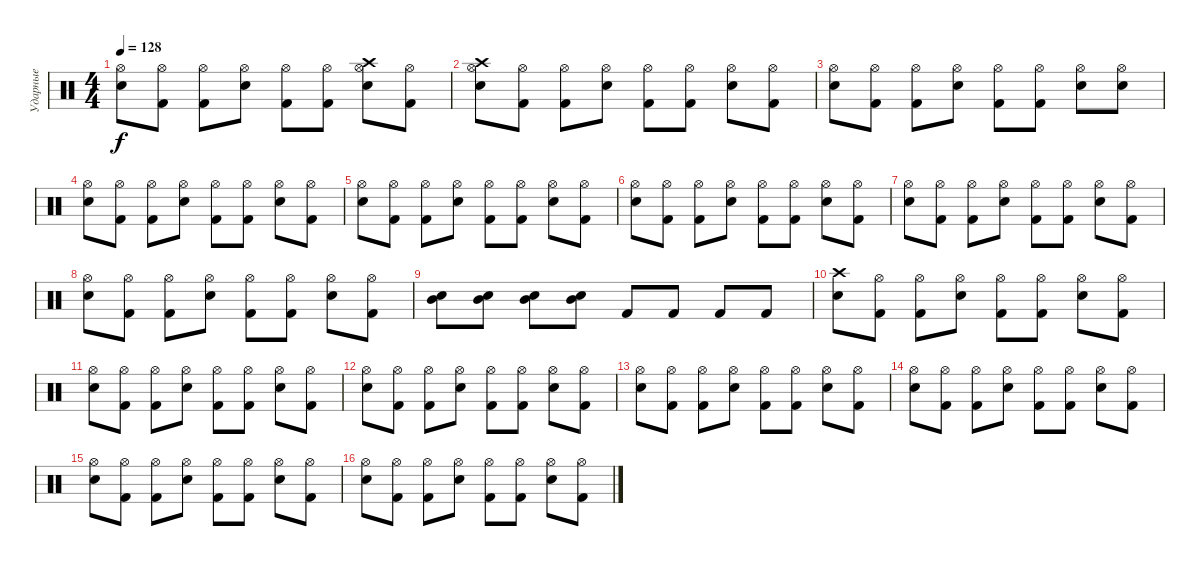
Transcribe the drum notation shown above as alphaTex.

\track ("Ударные" "Ударные") {instrument percussion}
\staff {score}
\articulation defaults
\ts (4 4)
\tempo 128
\clef neutral
\ks c
("Snare (hit) 2" "Hi-Hat (open)").8{dy f} ("Kick (hit) 2" "Hi-Hat (open)").8 ("Kick (hit) 2" "Hi-Hat (open)").8 ("Snare (hit) 2" "Hi-Hat (open)").8 ("Kick (hit) 2" "Hi-Hat (open)").8 ("Kick (hit) 2" "Hi-Hat (open)").8 ("Crash high (hit)" "Snare (hit) 2" "Hi-Hat (open)").8 ("Kick (hit) 2" "Hi-Hat (open)").8 |
("Crash high (hit)" "Snare (hit) 2" "Hi-Hat (open)").8 ("Kick (hit) 2" "Hi-Hat (open)").8 ("Kick (hit) 2" "Hi-Hat (open)").8 ("Snare (hit) 2" "Hi-Hat (open)").8 ("Kick (hit) 2" "Hi-Hat (open)").8 ("Kick (hit) 2" "Hi-Hat (open)").8 ("Snare (hit) 2" "Hi-Hat (open)").8 ("Kick (hit) 2" "Hi-Hat (open)").8 |
("Snare (hit) 2" "Hi-Hat (open)").8 ("Kick (hit) 2" "Hi-Hat (open)").8 ("Kick (hit) 2" "Hi-Hat (open)").8 ("Snare (hit) 2" "Hi-Hat (open)").8 ("Kick (hit) 2" "Hi-Hat (open)").8 ("Kick (hit) 2" "Hi-Hat (open)").8 ("Snare (hit) 2" "Hi-Hat (open)").8 ("Snare (hit) 2" "Hi-Hat (open)").8 |
("Snare (hit) 2" "Hi-Hat (open)").8 ("Kick (hit) 2" "Hi-Hat (open)").8 ("Kick (hit) 2" "Hi-Hat (open)").8 ("Snare (hit) 2" "Hi-Hat (open)").8 ("Kick (hit) 2" "Hi-Hat (open)").8 ("Kick (hit) 2" "Hi-Hat (open)").8 ("Snare (hit) 2" "Hi-Hat (open)").8 ("Kick (hit) 2" "Hi-Hat (open)").8 |
("Snare (hit) 2" "Hi-Hat (open)").8 ("Kick (hit) 2" "Hi-Hat (open)").8 ("Kick (hit) 2" "Hi-Hat (open)").8 ("Snare (hit) 2" "Hi-Hat (open)").8 ("Kick (hit) 2" "Hi-Hat (open)").8 ("Kick (hit) 2" "Hi-Hat (open)").8 ("Snare (hit) 2" "Hi-Hat (open)").8 ("Kick (hit) 2" "Hi-Hat (open)").8 |
("Snare (hit) 2" "Hi-Hat (open)").8 ("Kick (hit) 2" "Hi-Hat (open)").8 ("Kick (hit) 2" "Hi-Hat (open)").8 ("Snare (hit) 2" "Hi-Hat (open)").8 ("Kick (hit) 2" "Hi-Hat (open)").8 ("Kick (hit) 2" "Hi-Hat (open)").8 ("Snare (hit) 2" "Hi-Hat (open)").8 ("Kick (hit) 2" "Hi-Hat (open)").8 |
("Snare (hit) 2" "Hi-Hat (open)").8 ("Kick (hit) 2" "Hi-Hat (open)").8 ("Kick (hit) 2" "Hi-Hat (open)").8 ("Snare (hit) 2" "Hi-Hat (open)").8 ("Kick (hit) 2" "Hi-Hat (open)").8 ("Kick (hit) 2" "Hi-Hat (open)").8 ("Snare (hit) 2" "Hi-Hat (open)").8 ("Kick (hit) 2" "Hi-Hat (open)").8 |
("Snare (hit) 2" "Hi-Hat (open)").8 ("Kick (hit) 2" "Hi-Hat (open)").8 ("Kick (hit) 2" "Hi-Hat (open)").8 ("Snare (hit) 2" "Hi-Hat (open)").8 ("Kick (hit) 2" "Hi-Hat (open)").8 ("Kick (hit) 2" "Hi-Hat (open)").8 ("Snare (hit) 2" "Hi-Hat (open)").8 ("Kick (hit) 2" "Hi-Hat (open)").8 |
("Snare (hit) 2" "Mid Tom (hit)").8 ("Snare (hit) 2" "Mid Tom (hit)").8 ("Snare (hit) 2" "Mid Tom (hit)").8 ("Snare (hit) 2" "Mid Tom (hit)").8 "Kick (hit) 2".8 "Kick (hit) 2".8 "Kick (hit) 2".8 "Kick (hit) 2".8 |
("Crash high (hit)" "Snare (hit) 2").8 ("Kick (hit) 2" "Hi-Hat (open)").8 ("Kick (hit) 2" "Hi-Hat (open)").8 ("Snare (hit) 2" "Hi-Hat (open)").8 ("Kick (hit) 2" "Hi-Hat (open)").8 ("Kick (hit) 2" "Hi-Hat (open)").8 ("Snare (hit) 2" "Hi-Hat (open)").8 ("Kick (hit) 2" "Hi-Hat (open)").8 |
("Snare (hit) 2" "Hi-Hat (open)").8 ("Kick (hit) 2" "Hi-Hat (open)").8 ("Kick (hit) 2" "Hi-Hat (open)").8 ("Snare (hit) 2" "Hi-Hat (open)").8 ("Kick (hit) 2" "Hi-Hat (open)").8 ("Kick (hit) 2" "Hi-Hat (open)").8 ("Snare (hit) 2" "Hi-Hat (open)").8 ("Kick (hit) 2" "Hi-Hat (open)").8 |
("Snare (hit) 2" "Hi-Hat (open)").8 ("Kick (hit) 2" "Hi-Hat (open)").8 ("Kick (hit) 2" "Hi-Hat (open)").8 ("Snare (hit) 2" "Hi-Hat (open)").8 ("Kick (hit) 2" "Hi-Hat (open)").8 ("Kick (hit) 2" "Hi-Hat (open)").8 ("Snare (hit) 2" "Hi-Hat (open)").8 ("Kick (hit) 2" "Hi-Hat (open)").8 |
("Snare (hit) 2" "Hi-Hat (open)").8 ("Kick (hit) 2" "Hi-Hat (open)").8 ("Kick (hit) 2" "Hi-Hat (open)").8 ("Snare (hit) 2" "Hi-Hat (open)").8 ("Kick (hit) 2" "Hi-Hat (open)").8 ("Kick (hit) 2" "Hi-Hat (open)").8 ("Snare (hit) 2" "Hi-Hat (open)").8 ("Kick (hit) 2" "Hi-Hat (open)").8 |
("Snare (hit) 2" "Hi-Hat (open)").8 ("Kick (hit) 2" "Hi-Hat (open)").8 ("Kick (hit) 2" "Hi-Hat (open)").8 ("Snare (hit) 2" "Hi-Hat (open)").8 ("Kick (hit) 2" "Hi-Hat (open)").8 ("Kick (hit) 2" "Hi-Hat (open)").8 ("Snare (hit) 2" "Hi-Hat (open)").8 ("Kick (hit) 2" "Hi-Hat (open)").8 |
("Snare (hit) 2" "Hi-Hat (open)").8 ("Kick (hit) 2" "Hi-Hat (open)").8 ("Kick (hit) 2" "Hi-Hat (open)").8 ("Snare (hit) 2" "Hi-Hat (open)").8 ("Kick (hit) 2" "Hi-Hat (open)").8 ("Kick (hit) 2" "Hi-Hat (open)").8 ("Snare (hit) 2" "Hi-Hat (open)").8 ("Kick (hit) 2" "Hi-Hat (open)").8 |
("Snare (hit) 2" "Hi-Hat (open)").8 ("Kick (hit) 2" "Hi-Hat (open)").8 ("Kick (hit) 2" "Hi-Hat (open)").8 ("Snare (hit) 2" "Hi-Hat (open)").8 ("Kick (hit) 2" "Hi-Hat (open)").8 ("Kick (hit) 2" "Hi-Hat (open)").8 ("Snare (hit) 2" "Hi-Hat (open)").8 ("Kick (hit) 2" "Hi-Hat (open)").8
